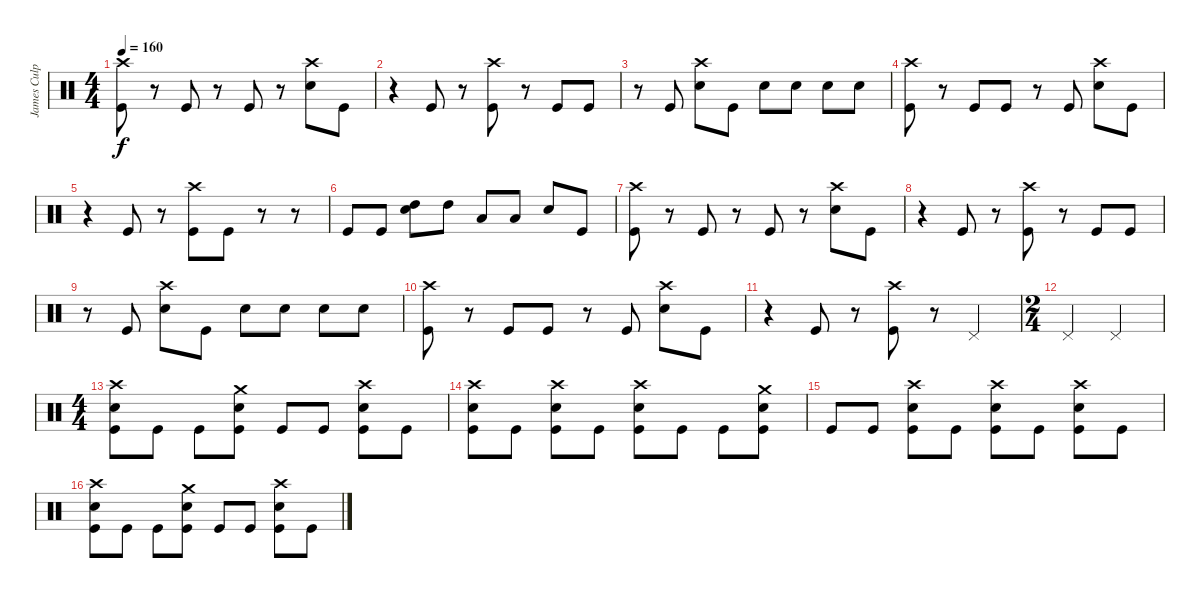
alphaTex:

\track ("James Culpepper - drums" "James Culp") {instrument percussion}
\staff {score}
\articulation defaults
\ts (4 4)
\tempo 160
\clef neutral
\ks c
("Crash high (hit)" "Kick (hit)").8{dy f} r.8 "Kick (hit)".8 r.8 "Kick (hit)".8 r.8 ("Crash high (hit)" "Snare (hit) 2").8 "Kick (hit)".8 |
r.4 "Kick (hit)".8 r.8 ("Crash high (hit)" "Kick (hit)").8 r.8 "Kick (hit)".8 "Kick (hit)".8 |
r.8 "Kick (hit)".8 ("Crash high (hit)" "Snare (hit) 2").8 "Kick (hit)".8 "Snare (hit) 2".8 "Snare (hit) 2".8 "Snare (hit) 2".8 "Snare (hit) 2".8 |
("Crash high (hit)" "Kick (hit)").8 r.8 "Kick (hit)".8 "Kick (hit)".8 r.8 "Kick (hit)".8 ("Crash high (hit)" "Snare (hit) 2").8 "Kick (hit)".8 |
r.4 "Kick (hit)".8 r.8 ("Crash high (hit)" "Kick (hit)").8 "Kick (hit)".8 r.8 r.8 |
"Kick (hit)".8 "Kick (hit)".8 ("High Tom (hit)" "Snare (hit) 2").8 "High Tom (hit)".8 "Low Tom (hit)".8 "Low Tom (hit)".8 "Snare (hit) 2".8 "Kick (hit)".8 |
("Crash high (hit)" "Kick (hit)").8 r.8 "Kick (hit)".8 r.8 "Kick (hit)".8 r.8 ("Crash high (hit)" "Snare (hit) 2").8 "Kick (hit)".8 |
r.4 "Kick (hit)".8 r.8 ("Crash high (hit)" "Kick (hit)").8 r.8 "Kick (hit)".8 "Kick (hit)".8 |
r.8 "Kick (hit)".8 ("Crash high (hit)" "Snare (hit) 2").8 "Kick (hit)".8 "Snare (hit) 2".8 "Snare (hit) 2".8 "Snare (hit) 2".8 "Snare (hit) 2".8 |
("Crash high (hit)" "Kick (hit)").8 r.8 "Kick (hit)".8 "Kick (hit)".8 r.8 "Kick (hit)".8 ("Crash high (hit)" "Snare (hit) 2").8 "Kick (hit)".8 |
r.4 "Kick (hit)".8 r.8 ("Crash high (hit)" "Kick (hit)").8 r.8 "Pedal Hi-Hat (hit)".4 |
\ts (2 4)
"Pedal Hi-Hat (hit)".4 "Pedal Hi-Hat (hit)".4 |
\ts (4 4)
("Crash high (hit)" "Snare (hit) 2" "Kick (hit)").8 "Kick (hit)".8 "Kick (hit)".8 ("Crash medium (hit)" "Snare (hit) 2" "Kick (hit)").8 "Kick (hit)".8 "Kick (hit)".8 ("Crash high (hit)" "Snare (hit) 2" "Kick (hit)").8 "Kick (hit)".8 |
("Crash high (hit)" "Snare (hit) 2" "Kick (hit)").8 "Kick (hit)".8 ("Crash high (hit)" "Snare (hit) 2" "Kick (hit)").8 "Kick (hit)".8 ("Crash high (hit)" "Snare (hit) 2" "Kick (hit)").8 "Kick (hit)".8 "Kick (hit)".8 ("Crash medium (hit)" "Snare (hit) 2" "Kick (hit)").8 |
"Kick (hit)".8 "Kick (hit)".8 ("Crash high (hit)" "Snare (hit) 2" "Kick (hit)").8 "Kick (hit)".8 ("Crash high (hit)" "Snare (hit) 2" "Kick (hit)").8 "Kick (hit)".8 ("Crash high (hit)" "Snare (hit) 2" "Kick (hit)").8 "Kick (hit)".8 |
("Crash high (hit)" "Snare (hit) 2" "Kick (hit)").8 "Kick (hit)".8 "Kick (hit)".8 ("Crash medium (hit)" "Snare (hit) 2" "Kick (hit)").8 "Kick (hit)".8 "Kick (hit)".8 ("Crash high (hit)" "Snare (hit) 2" "Kick (hit)").8 "Kick (hit)".8
